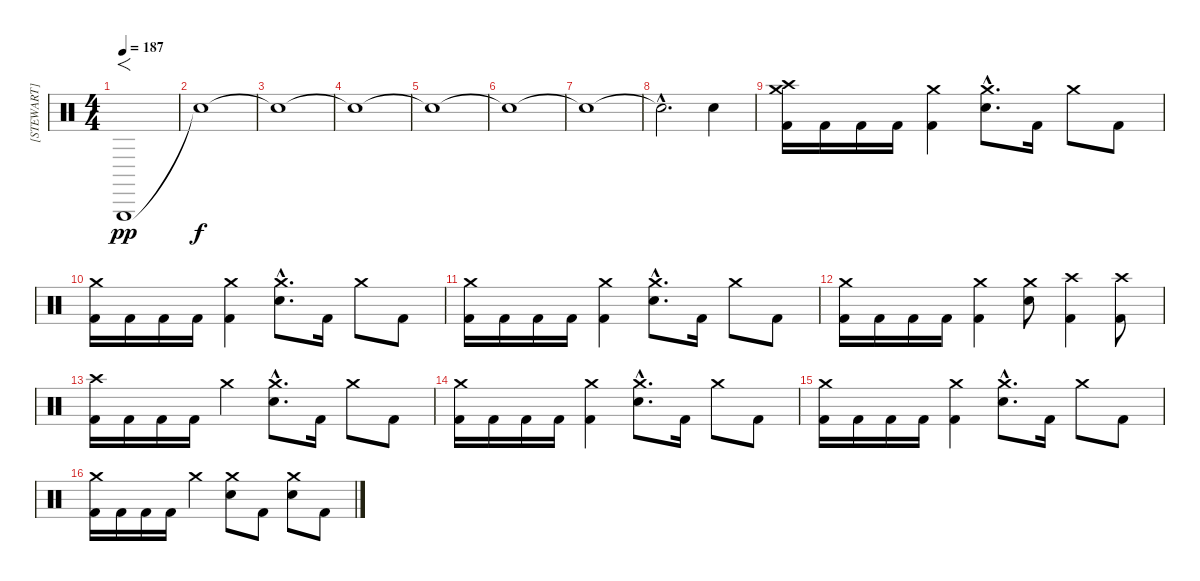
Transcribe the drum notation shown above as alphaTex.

\track ("[STEWART]" "[STEWART]") {instrument percussion}
\staff {score}
\articulation defaults
\ts (4 4)
\tempo 187
\clef neutral
\ks c "Triangle (hit)".1{f dy pp}
|
"Snare (hit)"{t}.1{dy f} |
"Snare (hit)"{t}.1 |
"Snare (hit)"{t}.1 |
"Snare (hit)"{t}.1 |
"Snare (hit)"{t}.1 |
"Snare (hit)"{t}.1 |
"Snare (hit)"{hac t}.2{d} "Electric Snare (hit)".4 |
("Crash medium (hit)" "Crash high (hit)" "Kick (hit) 2").16 "Kick (hit) 2".16 "Kick (hit) 2".16 "Kick (hit) 2".16 ("Crash medium (hit)" "Kick (hit) 2").4 ("Crash medium (hit)"{hac} "Electric Snare (hit)"{hac}).8{d} "Kick (hit) 2".16 "Crash medium (hit)".8 "Kick (hit) 2".8 |
("Crash medium (hit)" "Kick (hit) 2").16 "Kick (hit) 2".16 "Kick (hit) 2".16 "Kick (hit) 2".16 ("Crash medium (hit)" "Kick (hit) 2").4 ("Crash medium (hit)"{hac} "Electric Snare (hit)"{hac}).8{d} "Kick (hit) 2".16 "Crash medium (hit)".8 "Kick (hit) 2".8 |
("Crash medium (hit)" "Kick (hit) 2").16 "Kick (hit) 2".16 "Kick (hit) 2".16 "Kick (hit) 2".16 ("Crash medium (hit)" "Kick (hit) 2").4 ("Crash medium (hit)"{hac} "Electric Snare (hit)"{hac}).8{d} "Kick (hit) 2".16 "Crash medium (hit)".8 "Kick (hit) 2".8 |
("Crash medium (hit)" "Kick (hit) 2").16 "Kick (hit) 2".16 "Kick (hit) 2".16 "Kick (hit) 2".16 ("Crash medium (hit)" "Kick (hit) 2").4 ("Crash medium (hit)" "Electric Snare (hit)").8 ("Crash high (hit)" "Kick (hit) 2").4 ("Crash high (hit)" "Kick (hit) 2").8 |
("Crash high (hit)" "Kick (hit) 2").16 "Kick (hit) 2".16 "Kick (hit) 2".16 "Kick (hit) 2".16 "Crash medium (hit)".4 ("Crash medium (hit)"{hac} "Electric Snare (hit)"{hac}).8{d} "Kick (hit) 2".16 "Crash medium (hit)".8 "Kick (hit) 2".8 |
("Crash medium (hit)" "Kick (hit) 2").16 "Kick (hit) 2".16 "Kick (hit) 2".16 "Kick (hit) 2".16 ("Crash medium (hit)" "Kick (hit) 2").4 ("Crash medium (hit)"{hac} "Electric Snare (hit)"{hac}).8{d} "Kick (hit) 2".16 "Crash medium (hit)".8 "Kick (hit) 2".8 |
("Crash medium (hit)" "Kick (hit) 2").16 "Kick (hit) 2".16 "Kick (hit) 2".16 "Kick (hit) 2".16 ("Crash medium (hit)" "Kick (hit) 2").4 ("Crash medium (hit)"{hac} "Electric Snare (hit)"{hac}).8{d} "Kick (hit) 2".16 "Crash medium (hit)".8 "Kick (hit) 2".8 |
("Crash medium (hit)" "Kick (hit) 2").16 "Kick (hit) 2".16 "Kick (hit) 2".16 "Kick (hit) 2".16 "Crash medium (hit)".4 ("Crash medium (hit)" "Electric Snare (hit)").8 "Kick (hit) 2".8 ("Crash medium (hit)" "Electric Snare (hit)").8 "Kick (hit) 2".8
